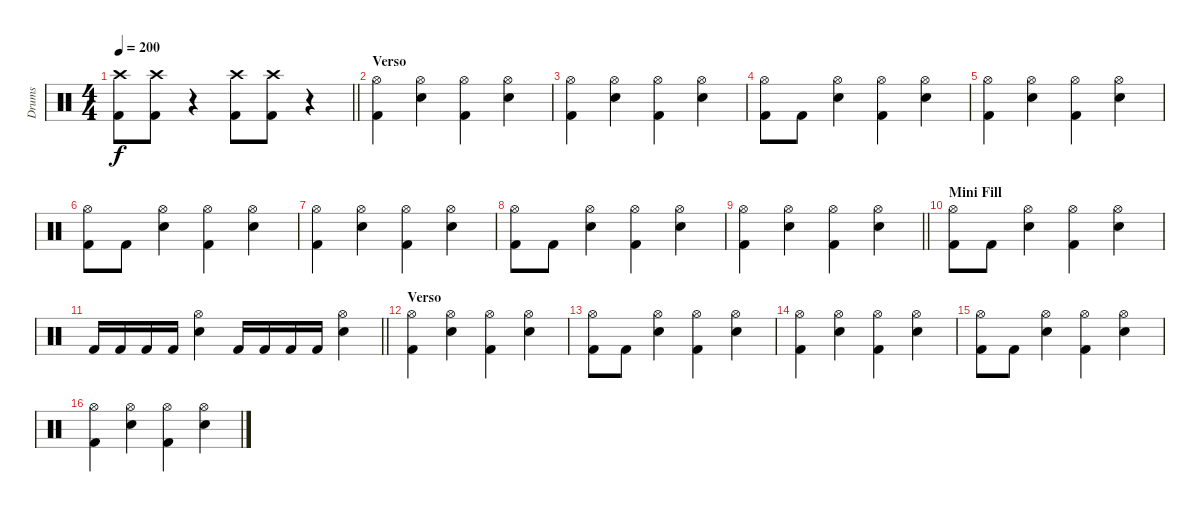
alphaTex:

\track ("Drums" "Drums") {instrument percussion}
\staff {score}
\articulation defaults
\ts (4 4)
\tempo 200
\clef neutral
\barLineRight lightlight
\ks c
("Crash high (hit)" "Kick (hit) 2").8{dy f} ("Crash high (hit)" "Kick (hit) 2").8 r.4 ("Crash high (hit)" "Kick (hit) 2").8 ("Crash high (hit)" "Kick (hit) 2").8 r.4 |
\section ("" "Verso")
("Hi-Hat (open)" "Kick (hit) 2").4 ("Hi-Hat (open)" "Electric Snare (hit)").4 ("Hi-Hat (open)" "Kick (hit) 2").4 ("Hi-Hat (open)" "Electric Snare (hit)").4 |
("Hi-Hat (open)" "Kick (hit) 2").4 ("Hi-Hat (open)" "Electric Snare (hit)").4 ("Hi-Hat (open)" "Kick (hit) 2").4 ("Hi-Hat (open)" "Electric Snare (hit)").4 |
("Hi-Hat (open)" "Kick (hit) 2").8 "Kick (hit) 2".8 ("Hi-Hat (open)" "Electric Snare (hit)").4 ("Hi-Hat (open)" "Kick (hit) 2").4 ("Hi-Hat (open)" "Electric Snare (hit)").4 |
("Hi-Hat (open)" "Kick (hit) 2").4 ("Hi-Hat (open)" "Electric Snare (hit)").4 ("Hi-Hat (open)" "Kick (hit) 2").4 ("Hi-Hat (open)" "Electric Snare (hit)").4 |
("Hi-Hat (open)" "Kick (hit) 2").8 "Kick (hit) 2".8 ("Hi-Hat (open)" "Electric Snare (hit)").4 ("Hi-Hat (open)" "Kick (hit) 2").4 ("Hi-Hat (open)" "Electric Snare (hit)").4 |
("Hi-Hat (open)" "Kick (hit) 2").4 ("Hi-Hat (open)" "Electric Snare (hit)").4 ("Hi-Hat (open)" "Kick (hit) 2").4 ("Hi-Hat (open)" "Electric Snare (hit)").4 |
("Hi-Hat (open)" "Kick (hit) 2").8 "Kick (hit) 2".8 ("Hi-Hat (open)" "Electric Snare (hit)").4 ("Hi-Hat (open)" "Kick (hit) 2").4 ("Hi-Hat (open)" "Electric Snare (hit)").4 |
\barLineRight lightlight
("Hi-Hat (open)" "Kick (hit) 2").4 ("Hi-Hat (open)" "Electric Snare (hit)").4 ("Hi-Hat (open)" "Kick (hit) 2").4 ("Hi-Hat (open)" "Electric Snare (hit)").4 |
\section ("" "Mini Fill")
("Hi-Hat (open)" "Kick (hit) 2").8 "Kick (hit) 2".8 ("Hi-Hat (open)" "Electric Snare (hit)").4 ("Hi-Hat (open)" "Kick (hit) 2").4 ("Hi-Hat (open)" "Electric Snare (hit)").4 |
\barLineRight lightlight "Kick (hit) 2".16 "Kick (hit) 2".16 "Kick (hit) 2".16 "Kick (hit) 2".16
("Hi-Hat (open)" "Electric Snare (hit)").4 "Kick (hit) 2".16 "Kick (hit) 2".16 "Kick (hit) 2".16 "Kick (hit) 2".16 ("Hi-Hat (open)" "Electric Snare (hit)").4 |
\section ("" "Verso")
("Hi-Hat (open)" "Kick (hit) 2").4 ("Hi-Hat (open)" "Electric Snare (hit)").4 ("Hi-Hat (open)" "Kick (hit) 2").4 ("Hi-Hat (open)" "Electric Snare (hit)").4 |
("Hi-Hat (open)" "Kick (hit) 2").8 "Kick (hit) 2".8 ("Hi-Hat (open)" "Electric Snare (hit)").4 ("Hi-Hat (open)" "Kick (hit) 2").4 ("Hi-Hat (open)" "Electric Snare (hit)").4 |
("Hi-Hat (open)" "Kick (hit) 2").4 ("Hi-Hat (open)" "Electric Snare (hit)").4 ("Hi-Hat (open)" "Kick (hit) 2").4 ("Hi-Hat (open)" "Electric Snare (hit)").4 |
("Hi-Hat (open)" "Kick (hit) 2").8 "Kick (hit) 2".8 ("Hi-Hat (open)" "Electric Snare (hit)").4 ("Hi-Hat (open)" "Kick (hit) 2").4 ("Hi-Hat (open)" "Electric Snare (hit)").4 |
("Hi-Hat (open)" "Kick (hit) 2").4 ("Hi-Hat (open)" "Electric Snare (hit)").4 ("Hi-Hat (open)" "Kick (hit) 2").4 ("Hi-Hat (open)" "Electric Snare (hit)").4
